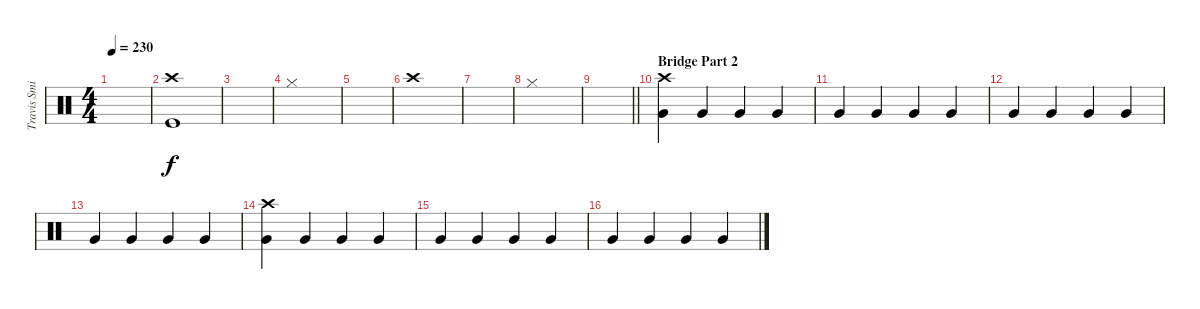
\track ("Travis Smith" "Travis Smi") {instrument percussion}
\staff {score}
\articulation defaults
\ts (4 4)
\tempo 230
\clef neutral
\ks c
|
("Crash high (hit)" "Kick (hit)").1 |
|
"Hi-Hat (closed)".1 |
|
"Crash high (hit)".1 |
|
"Hi-Hat (closed)".1 |
\barLineRight lightlight
|
\section ("" "Bridge Part 2")
("Crash high (hit)" "Very Low Tom (hit)").4 "Very Low Tom (hit)".4 "Very Low Tom (hit)".4 "Very Low Tom (hit)".4 |
"Very Low Tom (hit)".4 "Very Low Tom (hit)".4 "Very Low Tom (hit)".4 "Very Low Tom (hit)".4 |
"Very Low Tom (hit)".4 "Very Low Tom (hit)".4 "Very Low Tom (hit)".4 "Very Low Tom (hit)".4 |
"Very Low Tom (hit)".4 "Very Low Tom (hit)".4 "Very Low Tom (hit)".4 "Very Low Tom (hit)".4 |
("Crash high (hit)" "Very Low Tom (hit)").4 "Very Low Tom (hit)".4 "Very Low Tom (hit)".4 "Very Low Tom (hit)".4 |
"Very Low Tom (hit)".4 "Very Low Tom (hit)".4 "Very Low Tom (hit)".4 "Very Low Tom (hit)".4 |
"Very Low Tom (hit)".4 "Very Low Tom (hit)".4 "Very Low Tom (hit)".4 "Very Low Tom (hit)".4
